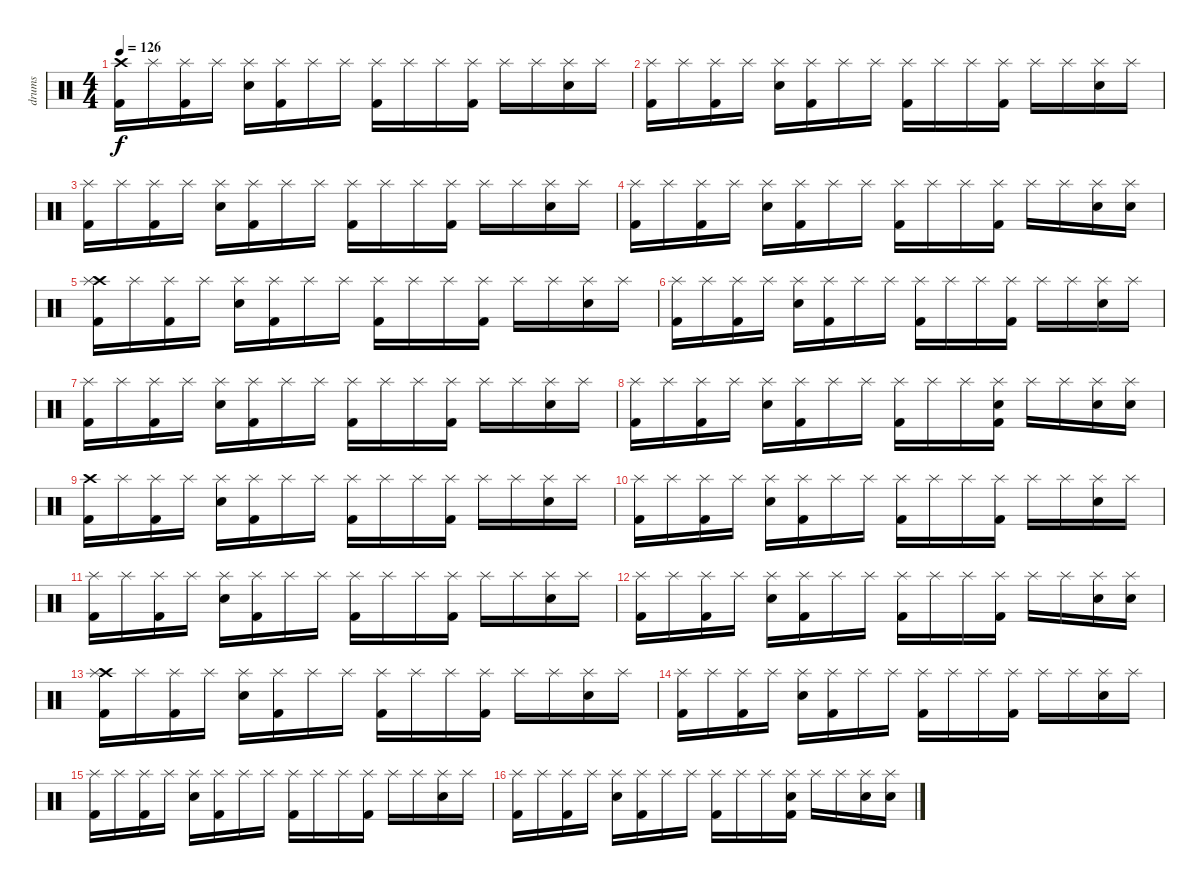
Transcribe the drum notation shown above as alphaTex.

\track ("drums" "drums") {instrument percussion}
\staff {score}
\articulation defaults
\ts (4 4)
\tempo 126
\clef neutral
\ks c
("Crash high (hit)" "Kick (hit) 2").16{dy f} "Splash (hit)".16 ("Splash (hit)" "Kick (hit) 2").16 "Splash (hit)".16 ("Splash (hit)" "Snare (hit) 2").16 ("Splash (hit)" "Kick (hit) 2").16 "Splash (hit)".16 "Splash (hit)".16 ("Splash (hit)" "Kick (hit) 2").16 "Splash (hit)".16 "Splash (hit)".16 ("Splash (hit)" "Kick (hit) 2").16 "Splash (hit)".16 "Splash (hit)".16 ("Splash (hit)" "Snare (hit) 2").16 "Splash (hit)".16 |
("Splash (hit)" "Kick (hit) 2").16 "Splash (hit)".16 ("Splash (hit)" "Kick (hit) 2").16 "Splash (hit)".16 ("Splash (hit)" "Snare (hit) 2").16 ("Splash (hit)" "Kick (hit) 2").16 "Splash (hit)".16 "Splash (hit)".16 ("Splash (hit)" "Kick (hit) 2").16 "Splash (hit)".16 "Splash (hit)".16 ("Splash (hit)" "Kick (hit) 2").16 "Splash (hit)".16 "Splash (hit)".16 ("Splash (hit)" "Snare (hit) 2").16 "Splash (hit)".16 |
("Splash (hit)" "Kick (hit) 2").16 "Splash (hit)".16 ("Splash (hit)" "Kick (hit) 2").16 "Splash (hit)".16 ("Splash (hit)" "Snare (hit) 2").16 ("Splash (hit)" "Kick (hit) 2").16 "Splash (hit)".16 "Splash (hit)".16 ("Splash (hit)" "Kick (hit) 2").16 "Splash (hit)".16 "Splash (hit)".16 ("Splash (hit)" "Kick (hit) 2").16 "Splash (hit)".16 "Splash (hit)".16 ("Splash (hit)" "Snare (hit) 2").16 "Splash (hit)".16 |
("Splash (hit)" "Kick (hit) 2").16 "Splash (hit)".16 ("Splash (hit)" "Kick (hit) 2").16 "Splash (hit)".16 ("Splash (hit)" "Snare (hit) 2").16 ("Splash (hit)" "Kick (hit) 2").16 "Splash (hit)".16 "Splash (hit)".16 ("Splash (hit)" "Kick (hit) 2").16 "Splash (hit)".16 "Splash (hit)".16 ("Splash (hit)" "Kick (hit) 2").16 "Splash (hit)".16 "Splash (hit)".16 ("Splash (hit)" "Snare (hit) 2").16 ("Splash (hit)" "Snare (hit) 2").16 |
("Crash high (hit)" "Splash (hit)" "Kick (hit) 2").16 "Splash (hit)".16 ("Splash (hit)" "Kick (hit) 2").16 "Splash (hit)".16 ("Splash (hit)" "Snare (hit) 2").16 ("Splash (hit)" "Kick (hit) 2").16 "Splash (hit)".16 "Splash (hit)".16 ("Splash (hit)" "Kick (hit) 2").16 "Splash (hit)".16 "Splash (hit)".16 ("Splash (hit)" "Kick (hit) 2").16 "Splash (hit)".16 "Splash (hit)".16 ("Splash (hit)" "Snare (hit) 2").16 "Splash (hit)".16 |
("Splash (hit)" "Kick (hit) 2").16 "Splash (hit)".16 ("Splash (hit)" "Kick (hit) 2").16 "Splash (hit)".16 ("Splash (hit)" "Snare (hit) 2").16 ("Splash (hit)" "Kick (hit) 2").16 "Splash (hit)".16 "Splash (hit)".16 ("Splash (hit)" "Kick (hit) 2").16 "Splash (hit)".16 "Splash (hit)".16 ("Splash (hit)" "Kick (hit) 2").16 "Splash (hit)".16 "Splash (hit)".16 ("Splash (hit)" "Snare (hit) 2").16 "Splash (hit)".16 |
("Splash (hit)" "Kick (hit) 2").16 "Splash (hit)".16 ("Splash (hit)" "Kick (hit) 2").16 "Splash (hit)".16 ("Splash (hit)" "Snare (hit) 2").16 ("Splash (hit)" "Kick (hit) 2").16 "Splash (hit)".16 "Splash (hit)".16 ("Splash (hit)" "Kick (hit) 2").16 "Splash (hit)".16 "Splash (hit)".16 ("Splash (hit)" "Kick (hit) 2").16 "Splash (hit)".16 "Splash (hit)".16 ("Splash (hit)" "Snare (hit) 2").16 "Splash (hit)".16 |
("Splash (hit)" "Kick (hit) 2").16 "Splash (hit)".16 ("Splash (hit)" "Kick (hit) 2").16 "Splash (hit)".16 ("Splash (hit)" "Snare (hit) 2").16 ("Splash (hit)" "Kick (hit) 2").16 "Splash (hit)".16 "Splash (hit)".16 ("Splash (hit)" "Kick (hit) 2").16 "Splash (hit)".16 "Splash (hit)".16 ("Splash (hit)" "Kick (hit) 2" "Snare (hit) 2").16 "Splash (hit)".16 "Splash (hit)".16 ("Splash (hit)" "Snare (hit) 2").16 ("Splash (hit)" "Snare (hit) 2").16 |
("Crash high (hit)" "Kick (hit) 2").16 "Splash (hit)".16 ("Splash (hit)" "Kick (hit) 2").16 "Splash (hit)".16 ("Splash (hit)" "Snare (hit) 2").16 ("Splash (hit)" "Kick (hit) 2").16 "Splash (hit)".16 "Splash (hit)".16 ("Splash (hit)" "Kick (hit) 2").16 "Splash (hit)".16 "Splash (hit)".16 ("Splash (hit)" "Kick (hit) 2").16 "Splash (hit)".16 "Splash (hit)".16 ("Splash (hit)" "Snare (hit) 2").16 "Splash (hit)".16 |
("Splash (hit)" "Kick (hit) 2").16 "Splash (hit)".16 ("Splash (hit)" "Kick (hit) 2").16 "Splash (hit)".16 ("Splash (hit)" "Snare (hit) 2").16 ("Splash (hit)" "Kick (hit) 2").16 "Splash (hit)".16 "Splash (hit)".16 ("Splash (hit)" "Kick (hit) 2").16 "Splash (hit)".16 "Splash (hit)".16 ("Splash (hit)" "Kick (hit) 2").16 "Splash (hit)".16 "Splash (hit)".16 ("Splash (hit)" "Snare (hit) 2").16 "Splash (hit)".16 |
("Splash (hit)" "Kick (hit) 2").16 "Splash (hit)".16 ("Splash (hit)" "Kick (hit) 2").16 "Splash (hit)".16 ("Splash (hit)" "Snare (hit) 2").16 ("Splash (hit)" "Kick (hit) 2").16 "Splash (hit)".16 "Splash (hit)".16 ("Splash (hit)" "Kick (hit) 2").16 "Splash (hit)".16 "Splash (hit)".16 ("Splash (hit)" "Kick (hit) 2").16 "Splash (hit)".16 "Splash (hit)".16 ("Splash (hit)" "Snare (hit) 2").16 "Splash (hit)".16 |
("Splash (hit)" "Kick (hit) 2").16 "Splash (hit)".16 ("Splash (hit)" "Kick (hit) 2").16 "Splash (hit)".16 ("Splash (hit)" "Snare (hit) 2").16 ("Splash (hit)" "Kick (hit) 2").16 "Splash (hit)".16 "Splash (hit)".16 ("Splash (hit)" "Kick (hit) 2").16 "Splash (hit)".16 "Splash (hit)".16 ("Splash (hit)" "Kick (hit) 2").16 "Splash (hit)".16 "Splash (hit)".16 ("Splash (hit)" "Snare (hit) 2").16 ("Splash (hit)" "Snare (hit) 2").16 |
("Crash high (hit)" "Splash (hit)" "Kick (hit) 2").16 "Splash (hit)".16 ("Splash (hit)" "Kick (hit) 2").16 "Splash (hit)".16 ("Splash (hit)" "Snare (hit) 2").16 ("Splash (hit)" "Kick (hit) 2").16 "Splash (hit)".16 "Splash (hit)".16 ("Splash (hit)" "Kick (hit) 2").16 "Splash (hit)".16 "Splash (hit)".16 ("Splash (hit)" "Kick (hit) 2").16 "Splash (hit)".16 "Splash (hit)".16 ("Splash (hit)" "Snare (hit) 2").16 "Splash (hit)".16 |
("Splash (hit)" "Kick (hit) 2").16 "Splash (hit)".16 ("Splash (hit)" "Kick (hit) 2").16 "Splash (hit)".16 ("Splash (hit)" "Snare (hit) 2").16 ("Splash (hit)" "Kick (hit) 2").16 "Splash (hit)".16 "Splash (hit)".16 ("Splash (hit)" "Kick (hit) 2").16 "Splash (hit)".16 "Splash (hit)".16 ("Splash (hit)" "Kick (hit) 2").16 "Splash (hit)".16 "Splash (hit)".16 ("Splash (hit)" "Snare (hit) 2").16 "Splash (hit)".16 |
("Splash (hit)" "Kick (hit) 2").16 "Splash (hit)".16 ("Splash (hit)" "Kick (hit) 2").16 "Splash (hit)".16 ("Splash (hit)" "Snare (hit) 2").16 ("Splash (hit)" "Kick (hit) 2").16 "Splash (hit)".16 "Splash (hit)".16 ("Splash (hit)" "Kick (hit) 2").16 "Splash (hit)".16 "Splash (hit)".16 ("Splash (hit)" "Kick (hit) 2").16 "Splash (hit)".16 "Splash (hit)".16 ("Splash (hit)" "Snare (hit) 2").16 "Splash (hit)".16 |
("Splash (hit)" "Kick (hit) 2").16 "Splash (hit)".16 ("Splash (hit)" "Kick (hit) 2").16 "Splash (hit)".16 ("Splash (hit)" "Snare (hit) 2").16 ("Splash (hit)" "Kick (hit) 2").16 "Splash (hit)".16 "Splash (hit)".16 ("Splash (hit)" "Kick (hit) 2").16 "Splash (hit)".16 "Splash (hit)".16 ("Splash (hit)" "Kick (hit) 2" "Snare (hit) 2").16 "Splash (hit)".16 "Splash (hit)".16 ("Splash (hit)" "Snare (hit) 2").16 ("Splash (hit)" "Snare (hit) 2").16
